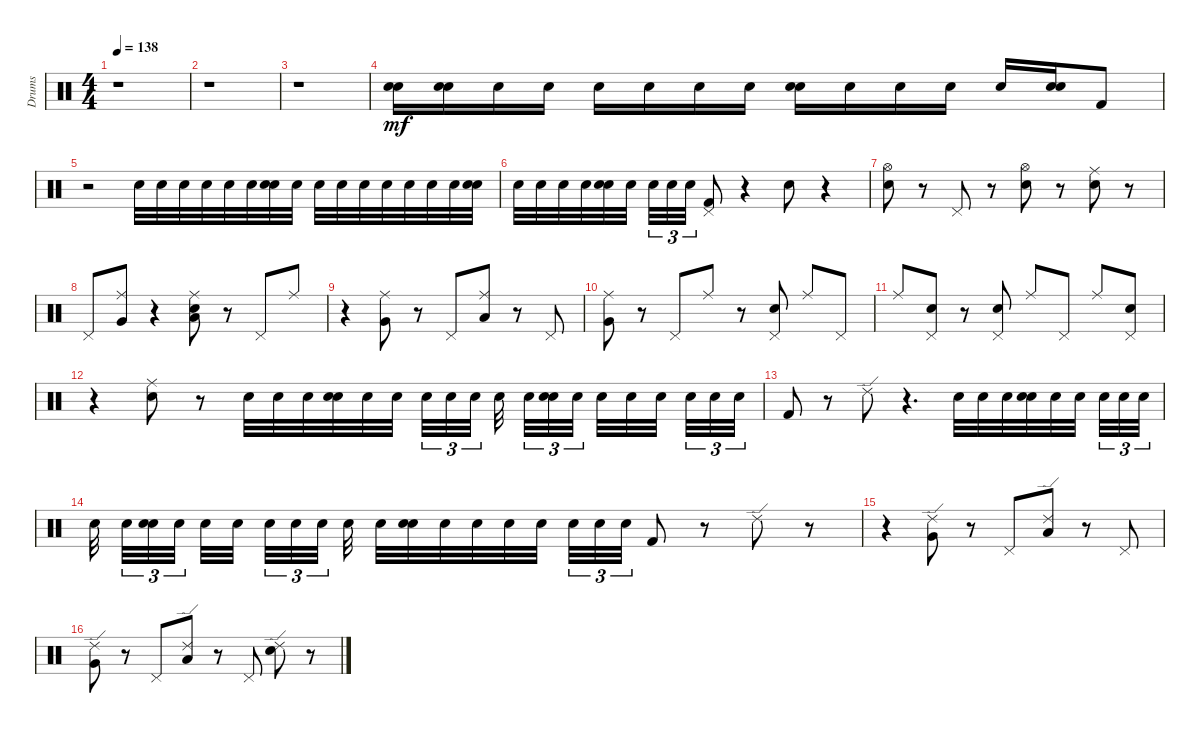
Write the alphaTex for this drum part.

\track ("Drums" "Drums") {instrument percussion}
\staff {score}
\articulation defaults
\ts (4 4)
\tempo 138
\clef neutral
\ks c
r.1{dy mf} |
r.1 |
r.1 |
("Snare (hit) 2" "Electric Snare (hit)").16{volume 14} ("Snare (hit) 2" "Electric Snare (hit)").16 "Electric Snare (hit)".16 "Snare (hit) 2".16 "Electric Snare (hit)".16 "Snare (hit) 2".16 "Electric Snare (hit)".16 "Snare (hit) 2".16 ("Snare (hit) 2" "Electric Snare (hit)").16 "Electric Snare (hit)".16 "Snare (hit) 2".16 "Electric Snare (hit)".16 "Snare (hit) 2".16 ("Snare (hit) 2" "Electric Snare (hit)").16 "Kick (hit) 2".8 |
r.2 "Electric Snare (hit)".32 "Snare (hit) 2".32 "Electric Snare (hit)".32 "Snare (hit) 2".32 "Electric Snare (hit)".32 "Snare (hit) 2".32 ("Snare (hit) 2" "Electric Snare (hit)").32 "Electric Snare (hit)".32 "Snare (hit) 2".32 "Electric Snare (hit)".32 "Snare (hit) 2".32 "Electric Snare (hit)".32 "Snare (hit) 2".32 "Electric Snare (hit)".32 "Snare (hit) 2".32 ("Snare (hit) 2" "Electric Snare (hit)").32 |
"Snare (hit) 2".32 "Electric Snare (hit)".32 "Snare (hit) 2".32 "Electric Snare (hit)".32 ("Snare (hit) 2" "Electric Snare (hit)").32 "Snare (hit) 2".32{beam splitsecondary} "Electric Snare (hit)".32{tu (3 2)} "Snare (hit) 2".32{tu (3 2)} "Electric Snare (hit)".32{tu (3 2)} ("Kick (hit) 2" "Pedal Hi-Hat (hit)").8 r.4 "Electric Snare (hit)".8 r.4 |
("Electric Snare (hit)" "Hi-Hat (open)").8 r.8 "Pedal Hi-Hat (hit)".8 r.8 ("Electric Snare (hit)" "Hi-Hat (open)").8 r.8 ("Electric Snare (hit)" "Ride (middle)").8 r.8 |
"Pedal Hi-Hat (hit)".8 ("Very Low Tom (hit)" "Ride (middle)").8 r.4 ("Electric Snare (hit)" "Low Floor Tom (hit)" "Ride (middle)").8 r.8 "Pedal Hi-Hat (hit)".8 "Ride (middle)".8 |
r.4 ("Very Low Tom (hit)" "Ride (middle)").8 r.8 "Pedal Hi-Hat (hit)".8 ("Low Floor Tom (hit)" "Ride (middle)").8 r.8 "Pedal Hi-Hat (hit)".8 |
("Very Low Tom (hit)" "Ride (middle)").8 r.8 "Pedal Hi-Hat (hit)".8 "Ride (middle)".8 r.8 ("Electric Snare (hit)" "Pedal Hi-Hat (hit)").8 "Ride (middle)".8 "Pedal Hi-Hat (hit)".8 |
"Ride (middle)".8 ("Electric Snare (hit)" "Pedal Hi-Hat (hit)").8 r.8 ("Electric Snare (hit)" "Pedal Hi-Hat (hit)").8 "Ride (middle)".8 "Pedal Hi-Hat (hit)".8 "Ride (middle)".8 ("Electric Snare (hit)" "Pedal Hi-Hat (hit)").8 |
r.4 ("Electric Snare (hit)" "Ride (middle)").8 r.8 "Electric Snare (hit)".32 "Snare (hit) 2".32 "Electric Snare (hit)".32 ("Snare (hit) 2" "Electric Snare (hit)").32 "Snare (hit) 2".32 "Electric Snare (hit)".32{beam splitsecondary} "Snare (hit) 2".32{tu (3 2)} "Electric Snare (hit)".32{tu (3 2)} "Snare (hit) 2".32{tu (3 2)} "Electric Snare (hit)".32{beam splitsecondary} "Snare (hit) 2".32{tu (3 2)} ("Snare (hit) 2" "Electric Snare (hit)").32{tu (3 2)} "Electric Snare (hit)".32{tu (3 2) beam splitsecondary} "Snare (hit) 2".32 "Electric Snare (hit)".32 "Snare (hit) 2".32{beam splitsecondary} "Electric Snare (hit)".32{tu (3 2)} "Snare (hit) 2".32{tu (3 2)} "Electric Snare (hit)".32{tu (3 2)} |
"Kick (hit) 2".8 r.8 "Ride (edge) 2".8 r.4{d} "Electric Snare (hit)".32 "Snare (hit) 2".32 "Electric Snare (hit)".32 ("Snare (hit) 2" "Electric Snare (hit)").32 "Snare (hit) 2".32 "Electric Snare (hit)".32{beam splitsecondary} "Snare (hit) 2".32{tu (3 2)} "Electric Snare (hit)".32{tu (3 2)} "Snare (hit) 2".32{tu (3 2)} |
"Electric Snare (hit)".32{beam splitsecondary} "Snare (hit) 2".32{tu (3 2)} ("Snare (hit) 2" "Electric Snare (hit)").32{tu (3 2)} "Electric Snare (hit)".32{tu (3 2) beam splitsecondary} "Snare (hit) 2".32 "Electric Snare (hit)".32{beam splitsecondary} "Snare (hit) 2".32{tu (3 2)} "Electric Snare (hit)".32{tu (3 2)} "Snare (hit) 2".32{tu (3 2) beam splitsecondary} "Electric Snare (hit)".32 "Snare (hit) 2".32 ("Snare (hit) 2" "Electric Snare (hit)").32 "Electric Snare (hit)".32 "Snare (hit) 2".32 "Electric Snare (hit)".32 "Snare (hit) 2".32{beam splitsecondary} "Electric Snare (hit)".32{tu (3 2)} "Snare (hit) 2".32{tu (3 2)} "Electric Snare (hit)".32{tu (3 2)} "Kick (hit) 2".8 r.8 "Ride (edge) 2".8 r.8 |
r.4 ("Very Low Tom (hit)" "Ride (edge) 2").8 r.8 "Pedal Hi-Hat (hit)".8 ("Low Floor Tom (hit)" "Ride (edge) 2").8 r.8 "Pedal Hi-Hat (hit)".8 |
("Very Low Tom (hit)" "Ride (edge) 2").8 r.8 "Pedal Hi-Hat (hit)".8 ("Low Floor Tom (hit)" "Ride (edge) 2").8 r.8 "Pedal Hi-Hat (hit)".8 ("Electric Snare (hit)" "Ride (edge) 2").8 r.8
